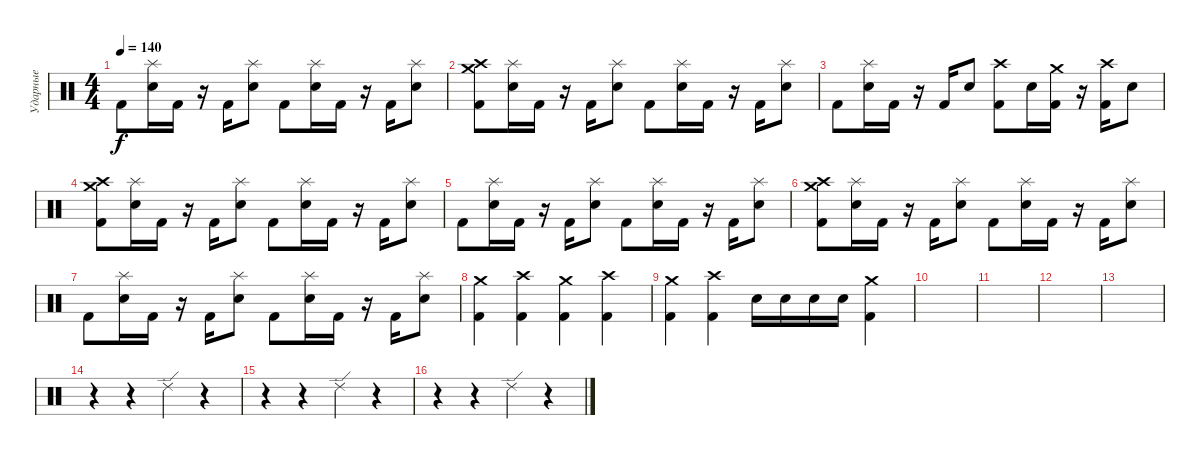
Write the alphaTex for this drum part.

\track ("Ударные" "Ударные") {instrument percussion}
\staff {score}
\articulation defaults
\ts (4 4)
\tempo 140
\clef neutral
\ks c "Kick (hit) 2".8{dy f}
("Splash (hit)" "Electric Snare (hit)").16 "Kick (hit) 2".16 r.16 "Kick (hit) 2".16 ("Splash (hit)" "Electric Snare (hit)").8 "Kick (hit) 2".8 ("Splash (hit)" "Electric Snare (hit)").16 "Kick (hit) 2".16 r.16 "Kick (hit) 2".16 ("Splash (hit)" "Electric Snare (hit)").8 |
("Crash medium (hit)" "Crash high (hit)" "Kick (hit) 2").8 ("Splash (hit)" "Electric Snare (hit)").16 "Kick (hit) 2".16 r.16 "Kick (hit) 2".16 ("Splash (hit)" "Electric Snare (hit)").8 "Kick (hit) 2".8 ("Splash (hit)" "Electric Snare (hit)").16 "Kick (hit) 2".16 r.16 "Kick (hit) 2".16 ("Splash (hit)" "Electric Snare (hit)").8 |
"Kick (hit) 2".8 ("Splash (hit)" "Electric Snare (hit)").16 "Kick (hit) 2".16 r.16 "Kick (hit) 2".16 "Electric Snare (hit)".8 ("Crash high (hit)" "Kick (hit) 2").8 "Electric Snare (hit)".16 ("Crash medium (hit)" "Kick (hit) 2").16 r.16 ("Crash high (hit)" "Kick (hit) 2").16 "Electric Snare (hit)".8 |
("Crash medium (hit)" "Crash high (hit)" "Kick (hit) 2").8 ("Splash (hit)" "Electric Snare (hit)").16 "Kick (hit) 2".16 r.16 "Kick (hit) 2".16 ("Splash (hit)" "Electric Snare (hit)").8 "Kick (hit) 2".8 ("Splash (hit)" "Electric Snare (hit)").16 "Kick (hit) 2".16 r.16 "Kick (hit) 2".16 ("Splash (hit)" "Electric Snare (hit)").8 |
"Kick (hit) 2".8 ("Splash (hit)" "Electric Snare (hit)").16 "Kick (hit) 2".16 r.16 "Kick (hit) 2".16 ("Splash (hit)" "Electric Snare (hit)").8 "Kick (hit) 2".8 ("Splash (hit)" "Electric Snare (hit)").16 "Kick (hit) 2".16 r.16 "Kick (hit) 2".16 ("Splash (hit)" "Electric Snare (hit)").8 |
("Crash medium (hit)" "Crash high (hit)" "Kick (hit) 2").8 ("Splash (hit)" "Electric Snare (hit)").16 "Kick (hit) 2".16 r.16 "Kick (hit) 2".16 ("Splash (hit)" "Electric Snare (hit)").8 "Kick (hit) 2".8 ("Splash (hit)" "Electric Snare (hit)").16 "Kick (hit) 2".16 r.16 "Kick (hit) 2".16 ("Splash (hit)" "Electric Snare (hit)").8 |
"Kick (hit) 2".8 ("Splash (hit)" "Electric Snare (hit)").16 "Kick (hit) 2".16 r.16 "Kick (hit) 2".16 ("Splash (hit)" "Electric Snare (hit)").8 "Kick (hit) 2".8 ("Splash (hit)" "Electric Snare (hit)").16 "Kick (hit) 2".16 r.16 "Kick (hit) 2".16 ("Splash (hit)" "Electric Snare (hit)").8 |
("Crash medium (hit)" "Kick (hit) 2").4 ("Crash high (hit)" "Kick (hit) 2").4 ("Crash medium (hit)" "Kick (hit) 2").4 ("Crash high (hit)" "Kick (hit) 2").4 |
("Crash medium (hit)" "Kick (hit) 2").4 ("Crash high (hit)" "Kick (hit) 2").4 "Electric Snare (hit)".16 "Electric Snare (hit)".16 "Electric Snare (hit)".16 "Electric Snare (hit)".16 ("Crash medium (hit)" "Kick (hit) 2").4 |
|
|
|
|
r.4 r.4 "Ride (edge) 2".4 r.4 |
r.4 r.4 "Ride (edge) 2".4 r.4 |
r.4 r.4 "Ride (edge) 2".4 r.4
